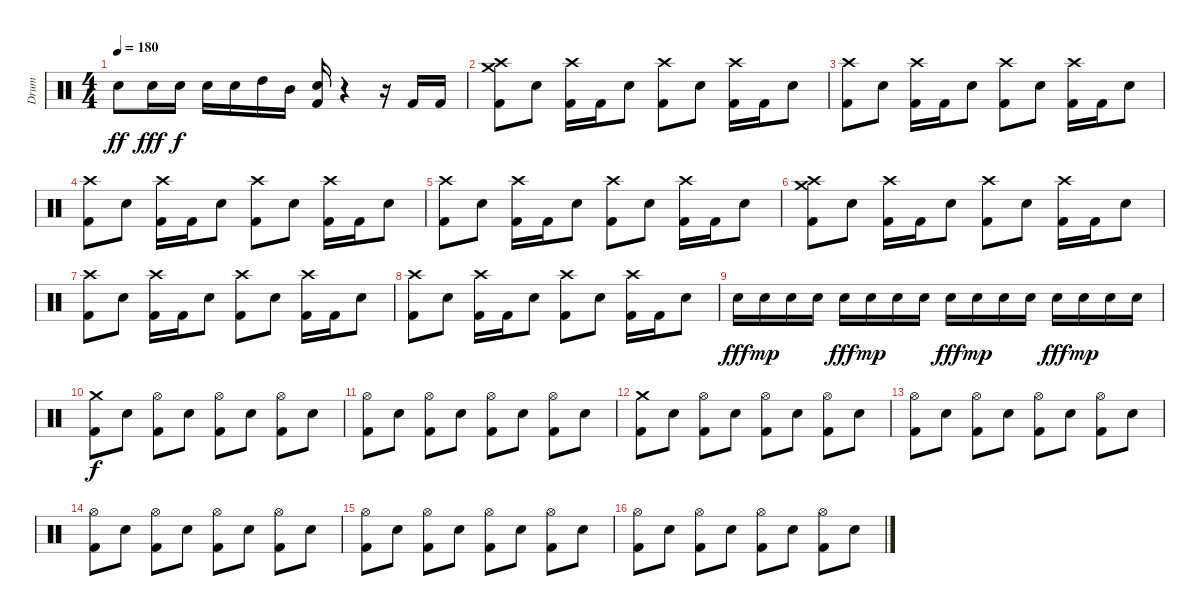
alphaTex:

\track ("Drum" "Drum") {instrument percussion}
\staff {score}
\articulation defaults
\ts (4 4)
\tempo 180
\clef neutral
\ks c "Electric Snare (hit)".8{dy ff} "Electric Snare (hit)".16{dy fff} "Electric Snare (hit)".16{dy f} "Electric Snare (hit)".16 "Electric Snare (hit)".16 "High Tom (hit)".16 "Mid Tom (hit)".16
("Electric Snare (hit)" "Kick (hit) 2").16 r.4 r.16 "Kick (hit) 2".16 "Kick (hit) 2".16 |
("Crash high (hit)" "Crash medium (hit)" "Kick (hit) 2").8 "Electric Snare (hit)".8 ("Crash high (hit)" "Kick (hit) 2").16 "Kick (hit) 2".16 "Electric Snare (hit)".8 ("Crash high (hit)" "Kick (hit) 2").8 "Electric Snare (hit)".8 ("Crash high (hit)" "Kick (hit) 2").16 "Kick (hit) 2".16 "Electric Snare (hit)".8 |
("Crash high (hit)" "Kick (hit) 2").8 "Electric Snare (hit)".8 ("Crash high (hit)" "Kick (hit) 2").16 "Kick (hit) 2".16 "Electric Snare (hit)".8 ("Crash high (hit)" "Kick (hit) 2").8 "Electric Snare (hit)".8 ("Crash high (hit)" "Kick (hit) 2").16 "Kick (hit) 2".16 "Electric Snare (hit)".8 |
("Crash high (hit)" "Kick (hit) 2").8 "Electric Snare (hit)".8 ("Crash high (hit)" "Kick (hit) 2").16 "Kick (hit) 2".16 "Electric Snare (hit)".8 ("Crash high (hit)" "Kick (hit) 2").8 "Electric Snare (hit)".8 ("Crash high (hit)" "Kick (hit) 2").16 "Kick (hit) 2".16 "Electric Snare (hit)".8 |
("Crash high (hit)" "Kick (hit) 2").8 "Electric Snare (hit)".8 ("Crash high (hit)" "Kick (hit) 2").16 "Kick (hit) 2".16 "Electric Snare (hit)".8 ("Crash high (hit)" "Kick (hit) 2").8 "Electric Snare (hit)".8 ("Crash high (hit)" "Kick (hit) 2").16 "Kick (hit) 2".16 "Electric Snare (hit)".8 |
("Crash high (hit)" "Crash medium (hit)" "Kick (hit) 2").8 "Electric Snare (hit)".8 ("Crash high (hit)" "Kick (hit) 2").16 "Kick (hit) 2".16 "Electric Snare (hit)".8 ("Crash high (hit)" "Kick (hit) 2").8 "Electric Snare (hit)".8 ("Crash high (hit)" "Kick (hit) 2").16 "Kick (hit) 2".16 "Electric Snare (hit)".8 |
("Crash high (hit)" "Kick (hit) 2").8 "Electric Snare (hit)".8 ("Crash high (hit)" "Kick (hit) 2").16 "Kick (hit) 2".16 "Electric Snare (hit)".8 ("Crash high (hit)" "Kick (hit) 2").8 "Electric Snare (hit)".8 ("Crash high (hit)" "Kick (hit) 2").16 "Kick (hit) 2".16 "Electric Snare (hit)".8 |
("Crash high (hit)" "Kick (hit) 2").8 "Electric Snare (hit)".8 ("Crash high (hit)" "Kick (hit) 2").16 "Kick (hit) 2".16 "Electric Snare (hit)".8 ("Crash high (hit)" "Kick (hit) 2").8 "Electric Snare (hit)".8 ("Crash high (hit)" "Kick (hit) 2").16 "Kick (hit) 2".16 "Electric Snare (hit)".8 |
"Electric Snare (hit)".16{dy fff} "Electric Snare (hit)".16{dy mp} "Electric Snare (hit)".16 "Electric Snare (hit)".16 "Electric Snare (hit)".16{dy fff} "Electric Snare (hit)".16{dy mp} "Electric Snare (hit)".16 "Electric Snare (hit)".16 "Electric Snare (hit)".16{dy fff} "Electric Snare (hit)".16{dy mp} "Electric Snare (hit)".16 "Electric Snare (hit)".16 "Electric Snare (hit)".16{dy fff} "Electric Snare (hit)".16{dy mp} "Electric Snare (hit)".16 "Electric Snare (hit)".16 |
("Crash medium (hit)" "Kick (hit) 2").8{dy f} "Electric Snare (hit)".8 ("Hi-Hat (open)" "Kick (hit) 2").8 "Electric Snare (hit)".8 ("Hi-Hat (open)" "Kick (hit) 2").8 "Electric Snare (hit)".8 ("Hi-Hat (open)" "Kick (hit) 2").8 "Electric Snare (hit)".8 |
("Hi-Hat (open)" "Kick (hit) 2").8 "Electric Snare (hit)".8 ("Hi-Hat (open)" "Kick (hit) 2").8 "Electric Snare (hit)".8 ("Hi-Hat (open)" "Kick (hit) 2").8 "Electric Snare (hit)".8 ("Hi-Hat (open)" "Kick (hit) 2").8 "Electric Snare (hit)".8 |
("Crash medium (hit)" "Kick (hit) 2").8 "Electric Snare (hit)".8 ("Hi-Hat (open)" "Kick (hit) 2").8 "Electric Snare (hit)".8 ("Hi-Hat (open)" "Kick (hit) 2").8 "Electric Snare (hit)".8 ("Hi-Hat (open)" "Kick (hit) 2").8 "Electric Snare (hit)".8 |
("Hi-Hat (open)" "Kick (hit) 2").8 "Electric Snare (hit)".8 ("Hi-Hat (open)" "Kick (hit) 2").8 "Electric Snare (hit)".8 ("Hi-Hat (open)" "Kick (hit) 2").8 "Electric Snare (hit)".8 ("Hi-Hat (open)" "Kick (hit) 2").8 "Electric Snare (hit)".8 |
("Hi-Hat (open)" "Kick (hit) 2").8 "Electric Snare (hit)".8 ("Hi-Hat (open)" "Kick (hit) 2").8 "Electric Snare (hit)".8 ("Hi-Hat (open)" "Kick (hit) 2").8 "Electric Snare (hit)".8 ("Hi-Hat (open)" "Kick (hit) 2").8 "Electric Snare (hit)".8 |
("Hi-Hat (open)" "Kick (hit) 2").8 "Electric Snare (hit)".8 ("Hi-Hat (open)" "Kick (hit) 2").8 "Electric Snare (hit)".8 ("Hi-Hat (open)" "Kick (hit) 2").8 "Electric Snare (hit)".8 ("Hi-Hat (open)" "Kick (hit) 2").8 "Electric Snare (hit)".8 |
("Hi-Hat (open)" "Kick (hit) 2").8 "Electric Snare (hit)".8 ("Hi-Hat (open)" "Kick (hit) 2").8 "Electric Snare (hit)".8 ("Hi-Hat (open)" "Kick (hit) 2").8 "Electric Snare (hit)".8 ("Hi-Hat (open)" "Kick (hit) 2").8 "Electric Snare (hit)".8
